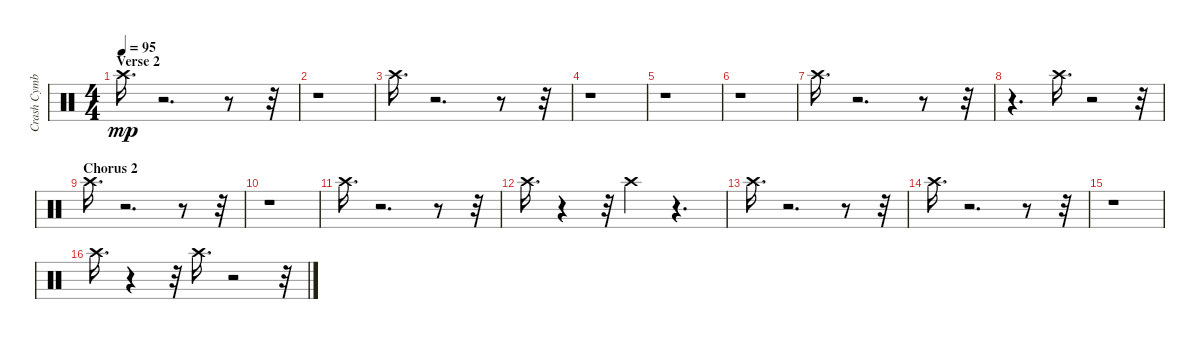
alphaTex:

\track ("Crash Cymbal" "Crash Cymb") {instrument percussion}
\staff {score}
\articulation defaults
\ts (4 4)
\section ("" "Verse 2")
\tempo 95
\clef neutral
\ks c "Crash high (hit)".16{d dy mp}
r.2{d} r.8 r.32 |
r.1 |
"Crash high (hit)".16{d} r.2{d} r.8 r.32 |
r.1 |
r.1 |
r.1 |
"Crash high (hit)".16{d} r.2{d} r.8 r.32 |
r.4{d} "Crash high (hit)".16{d} r.2 r.32 |
\section ("" "Chorus 2")
"Crash high (hit)".16{d} r.2{d} r.8 r.32 |
r.1 |
"Crash high (hit)".16{d} r.2{d} r.8 r.32 |
"Crash high (hit)".16{d} r.4 r.32 "Crash high (hit)".4 r.4{d} |
"Crash high (hit)".16{d} r.2{d} r.8 r.32 |
"Crash high (hit)".16{d} r.2{d} r.8 r.32 |
r.1 |
"Crash high (hit)".16{d} r.4 r.32 "Crash high (hit)".16{d} r.2 r.32
